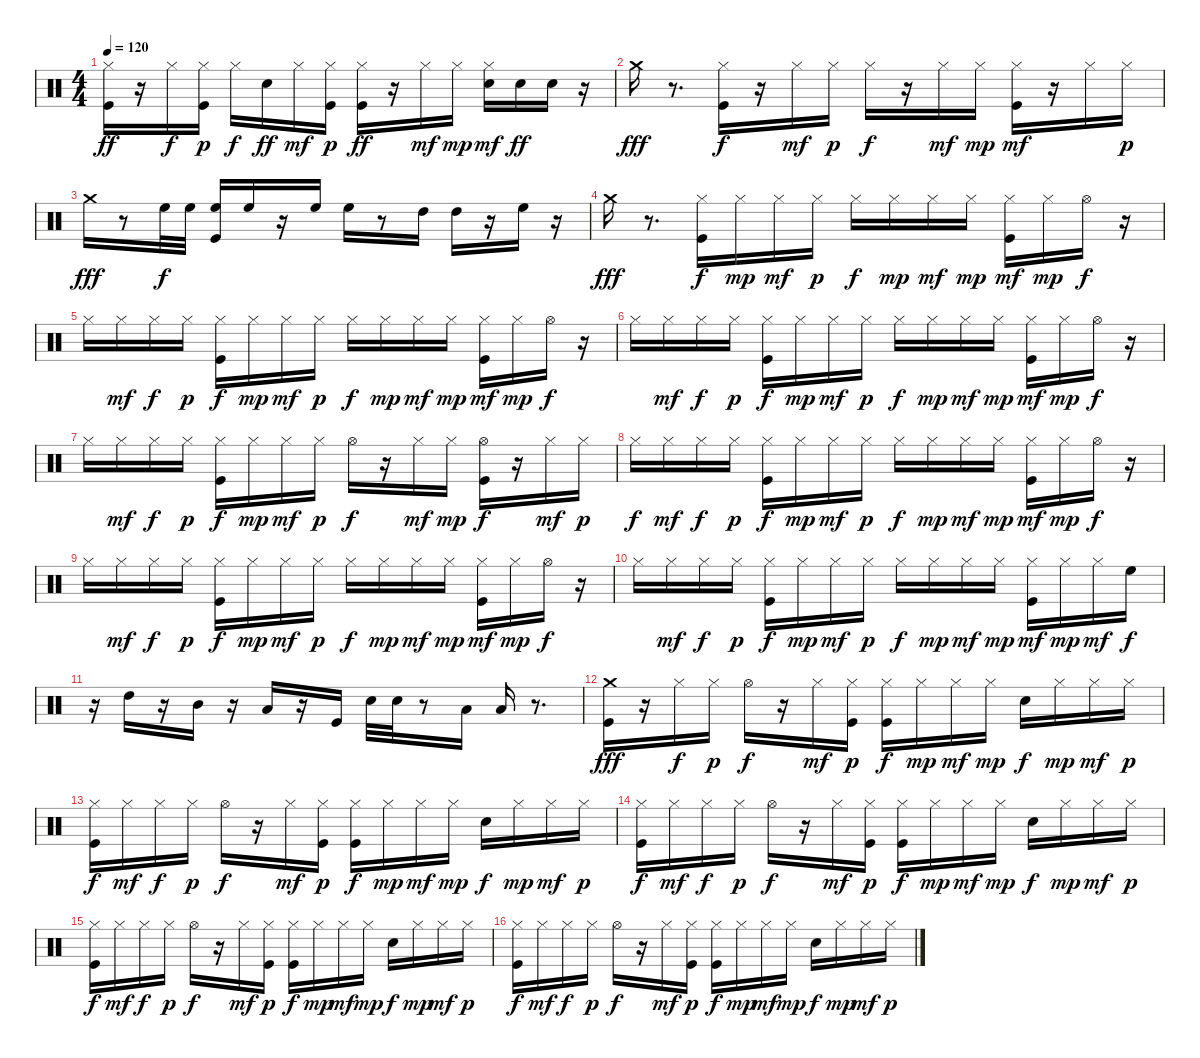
\track "" {instrument percussion}
\staff {score}
\articulation defaults
\ts (4 4)
\tempo 120
\clef neutral
\ks c
("Kick (hit)" "Hi-Hat (closed)").16{dy ff} r.16 "Hi-Hat (closed)".16{dy f} ("Kick (hit)" "Hi-Hat (closed)").16{dy p} "Hi-Hat (closed)".16{dy f} "Electric Snare (hit)".16{dy ff} "Hi-Hat (closed)".16{dy mf} ("Kick (hit)" "Hi-Hat (closed)").16{dy p} ("Kick (hit)" "Hi-Hat (closed)").16{dy ff} r.16 "Hi-Hat (closed)".16{dy mf} "Hi-Hat (closed)".16{dy mp} ("Electric Snare (hit)" "Hi-Hat (closed)").16{dy mf} "Electric Snare (hit)".16{dy ff} "Electric Snare (hit)".16 r.16 |
"Crash medium (hit)".16{dy fff} r.8{d} ("Kick (hit)" "Hi-Hat (closed)").16{dy f} r.16 "Hi-Hat (closed)".16{dy mf} "Hi-Hat (closed)".16{dy p} "Hi-Hat (closed)".16{dy f} r.16 "Hi-Hat (closed)".16{dy mf} "Hi-Hat (closed)".16{dy mp} ("Kick (hit)" "Hi-Hat (closed)").16{dy mf} r.16 "Hi-Hat (closed)".16 "Hi-Hat (closed)".16{dy p} |
"Crash medium (hit)".16{dy fff} r.8 "High Floor Tom (hit)".32{dy f} "High Floor Tom (hit)".32 ("Kick (hit)" "High Floor Tom (hit)").16 "High Floor Tom (hit)".16 r.16 "High Floor Tom (hit)".16 "High Floor Tom (hit)".16 r.8 "High Tom (hit)".16 "High Tom (hit)".16 r.16 "High Floor Tom (hit)".16 r.16 |
"Crash medium (hit)".16{dy fff} r.8{d} ("Kick (hit)" "Hi-Hat (closed)").16{dy f} "Hi-Hat (closed)".16{dy mp} "Hi-Hat (closed)".16{dy mf} "Hi-Hat (closed)".16{dy p} "Hi-Hat (closed)".16{dy f} "Hi-Hat (closed)".16{dy mp} "Hi-Hat (closed)".16{dy mf} "Hi-Hat (closed)".16{dy mp} ("Kick (hit)" "Hi-Hat (closed)").16{dy mf} "Hi-Hat (closed)".16{dy mp} "Hi-Hat (open)".16{dy f} r.16 |
"Hi-Hat (closed)".16 "Hi-Hat (closed)".16{dy mf} "Hi-Hat (closed)".16{dy f} "Hi-Hat (closed)".16{dy p} ("Kick (hit)" "Hi-Hat (closed)").16{dy f} "Hi-Hat (closed)".16{dy mp} "Hi-Hat (closed)".16{dy mf} "Hi-Hat (closed)".16{dy p} "Hi-Hat (closed)".16{dy f} "Hi-Hat (closed)".16{dy mp} "Hi-Hat (closed)".16{dy mf} "Hi-Hat (closed)".16{dy mp} ("Kick (hit)" "Hi-Hat (closed)").16{dy mf} "Hi-Hat (closed)".16{dy mp} "Hi-Hat (open)".16{dy f} r.16 |
"Hi-Hat (closed)".16 "Hi-Hat (closed)".16{dy mf} "Hi-Hat (closed)".16{dy f} "Hi-Hat (closed)".16{dy p} ("Kick (hit)" "Hi-Hat (closed)").16{dy f} "Hi-Hat (closed)".16{dy mp} "Hi-Hat (closed)".16{dy mf} "Hi-Hat (closed)".16{dy p} "Hi-Hat (closed)".16{dy f} "Hi-Hat (closed)".16{dy mp} "Hi-Hat (closed)".16{dy mf} "Hi-Hat (closed)".16{dy mp} ("Kick (hit)" "Hi-Hat (closed)").16{dy mf} "Hi-Hat (closed)".16{dy mp} "Hi-Hat (open)".16{dy f} r.16 |
"Hi-Hat (closed)".16 "Hi-Hat (closed)".16{dy mf} "Hi-Hat (closed)".16{dy f} "Hi-Hat (closed)".16{dy p} ("Kick (hit)" "Hi-Hat (closed)").16{dy f} "Hi-Hat (closed)".16{dy mp} "Hi-Hat (closed)".16{dy mf} "Hi-Hat (closed)".16{dy p} "Hi-Hat (open)".16{dy f} r.16 "Hi-Hat (closed)".16{dy mf} "Hi-Hat (closed)".16{dy mp} ("Kick (hit)" "Hi-Hat (open)").16{dy f} r.16 "Hi-Hat (closed)".16{dy mf} "Hi-Hat (closed)".16{dy p} |
"Hi-Hat (closed)".16{dy f} "Hi-Hat (closed)".16{dy mf} "Hi-Hat (closed)".16{dy f} "Hi-Hat (closed)".16{dy p} ("Kick (hit)" "Hi-Hat (closed)").16{dy f} "Hi-Hat (closed)".16{dy mp} "Hi-Hat (closed)".16{dy mf} "Hi-Hat (closed)".16{dy p} "Hi-Hat (closed)".16{dy f} "Hi-Hat (closed)".16{dy mp} "Hi-Hat (closed)".16{dy mf} "Hi-Hat (closed)".16{dy mp} ("Kick (hit)" "Hi-Hat (closed)").16{dy mf} "Hi-Hat (closed)".16{dy mp} "Hi-Hat (open)".16{dy f} r.16 |
"Hi-Hat (closed)".16 "Hi-Hat (closed)".16{dy mf} "Hi-Hat (closed)".16{dy f} "Hi-Hat (closed)".16{dy p} ("Kick (hit)" "Hi-Hat (closed)").16{dy f} "Hi-Hat (closed)".16{dy mp} "Hi-Hat (closed)".16{dy mf} "Hi-Hat (closed)".16{dy p} "Hi-Hat (closed)".16{dy f} "Hi-Hat (closed)".16{dy mp} "Hi-Hat (closed)".16{dy mf} "Hi-Hat (closed)".16{dy mp} ("Kick (hit)" "Hi-Hat (closed)").16{dy mf} "Hi-Hat (closed)".16{dy mp} "Hi-Hat (open)".16{dy f} r.16 |
"Hi-Hat (closed)".16 "Hi-Hat (closed)".16{dy mf} "Hi-Hat (closed)".16{dy f} "Hi-Hat (closed)".16{dy p} ("Kick (hit)" "Hi-Hat (closed)").16{dy f} "Hi-Hat (closed)".16{dy mp} "Hi-Hat (closed)".16{dy mf} "Hi-Hat (closed)".16{dy p} "Hi-Hat (closed)".16{dy f} "Hi-Hat (closed)".16{dy mp} "Hi-Hat (closed)".16{dy mf} "Hi-Hat (closed)".16{dy mp} ("Kick (hit)" "Hi-Hat (closed)").16{dy mf} "Hi-Hat (closed)".16{dy mp} "Hi-Hat (closed)".16{dy mf} "High Floor Tom (hit)".16{dy f} |
r.16 "High Tom (hit)".16 r.16 "Mid Tom (hit)".16 r.16 "Low Tom (hit)".16 r.16 "Kick (hit)".16 "Electric Snare (hit)".32 "Electric Snare (hit)".32 r.8 "Low Tom (hit)".16 "Low Tom (hit)".16 r.8{d} |
("Kick (hit)" "Crash medium (hit)").16{dy fff} r.16 "Hi-Hat (closed)".16{dy f} "Hi-Hat (closed)".16{dy p} "Hi-Hat (open)".16{dy f} r.16 "Hi-Hat (closed)".16{dy mf} ("Kick (hit)" "Hi-Hat (closed)").16{dy p} ("Kick (hit)" "Hi-Hat (closed)").16{dy f} "Hi-Hat (closed)".16{dy mp} "Hi-Hat (closed)".16{dy mf} "Hi-Hat (closed)".16{dy mp} "Electric Snare (hit)".16{dy f} "Hi-Hat (closed)".16{dy mp} "Hi-Hat (closed)".16{dy mf} "Hi-Hat (closed)".16{dy p} |
("Kick (hit)" "Hi-Hat (closed)").16{dy f} "Hi-Hat (closed)".16{dy mf} "Hi-Hat (closed)".16{dy f} "Hi-Hat (closed)".16{dy p} "Hi-Hat (open)".16{dy f} r.16 "Hi-Hat (closed)".16{dy mf} ("Kick (hit)" "Hi-Hat (closed)").16{dy p} ("Kick (hit)" "Hi-Hat (closed)").16{dy f} "Hi-Hat (closed)".16{dy mp} "Hi-Hat (closed)".16{dy mf} "Hi-Hat (closed)".16{dy mp} "Electric Snare (hit)".16{dy f} "Hi-Hat (closed)".16{dy mp} "Hi-Hat (closed)".16{dy mf} "Hi-Hat (closed)".16{dy p} |
("Kick (hit)" "Hi-Hat (closed)").16{dy f} "Hi-Hat (closed)".16{dy mf} "Hi-Hat (closed)".16{dy f} "Hi-Hat (closed)".16{dy p} "Hi-Hat (open)".16{dy f} r.16 "Hi-Hat (closed)".16{dy mf} ("Kick (hit)" "Hi-Hat (closed)").16{dy p} ("Kick (hit)" "Hi-Hat (closed)").16{dy f} "Hi-Hat (closed)".16{dy mp} "Hi-Hat (closed)".16{dy mf} "Hi-Hat (closed)".16{dy mp} "Electric Snare (hit)".16{dy f} "Hi-Hat (closed)".16{dy mp} "Hi-Hat (closed)".16{dy mf} "Hi-Hat (closed)".16{dy p} |
("Kick (hit)" "Hi-Hat (closed)").16{dy f} "Hi-Hat (closed)".16{dy mf} "Hi-Hat (closed)".16{dy f} "Hi-Hat (closed)".16{dy p} "Hi-Hat (open)".16{dy f} r.16 "Hi-Hat (closed)".16{dy mf} ("Kick (hit)" "Hi-Hat (closed)").16{dy p} ("Kick (hit)" "Hi-Hat (closed)").16{dy f} "Hi-Hat (closed)".16{dy mp} "Hi-Hat (closed)".16{dy mf} "Hi-Hat (closed)".16{dy mp} "Electric Snare (hit)".16{dy f} "Hi-Hat (closed)".16{dy mp} "Hi-Hat (closed)".16{dy mf} "Hi-Hat (closed)".16{dy p} |
("Kick (hit)" "Hi-Hat (closed)").16{dy f} "Hi-Hat (closed)".16{dy mf} "Hi-Hat (closed)".16{dy f} "Hi-Hat (closed)".16{dy p} "Hi-Hat (open)".16{dy f} r.16 "Hi-Hat (closed)".16{dy mf} ("Kick (hit)" "Hi-Hat (closed)").16{dy p} ("Kick (hit)" "Hi-Hat (closed)").16{dy f} "Hi-Hat (closed)".16{dy mp} "Hi-Hat (closed)".16{dy mf} "Hi-Hat (closed)".16{dy mp} "Electric Snare (hit)".16{dy f} "Hi-Hat (closed)".16{dy mp} "Hi-Hat (closed)".16{dy mf} "Hi-Hat (closed)".16{dy p}
